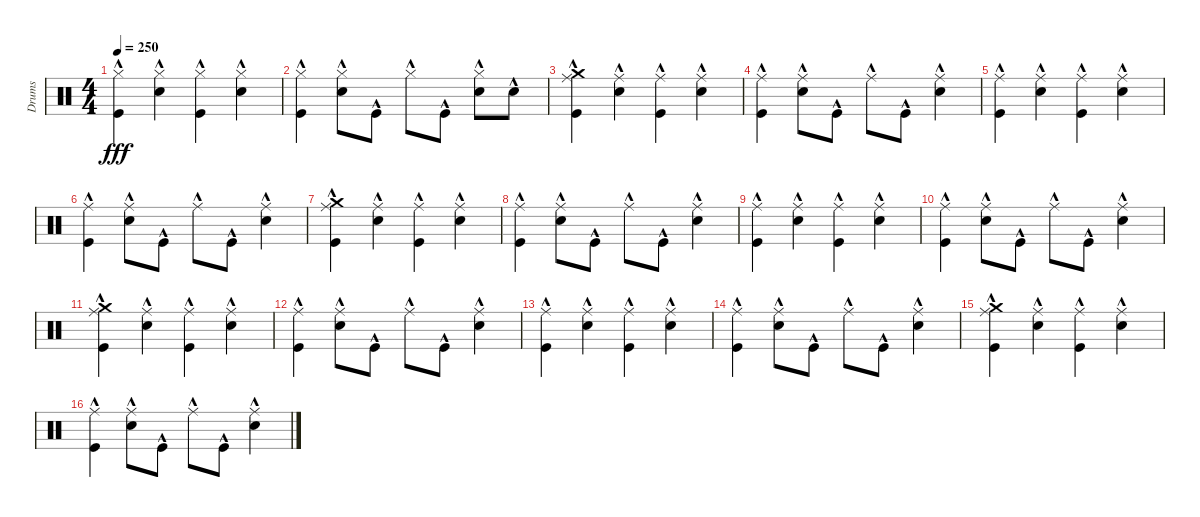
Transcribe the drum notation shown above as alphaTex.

\track ("Drums" "Drums") {instrument percussion}
\staff {score}
\articulation defaults
\ts (4 4)
\tempo 250
\clef neutral
\ks c
("Hi-Hat (closed)"{hac} "Kick (hit)"{hac}).4{dy fff} ("Hi-Hat (closed)"{hac} "Snare (hit) 2"{hac}).4 ("Hi-Hat (closed)"{hac} "Kick (hit)"{hac}).4 ("Hi-Hat (closed)"{hac} "Snare (hit) 2"{hac}).4 |
("Hi-Hat (closed)"{hac} "Kick (hit)"{hac}).4 ("Hi-Hat (closed)"{hac} "Snare (hit) 2"{hac}).8 "Kick (hit)"{hac}.8 "Hi-Hat (closed)"{hac}.8 "Kick (hit)"{hac}.8 ("Hi-Hat (closed)"{hac} "Snare (hit) 2"{hac}).8 "Snare (hit) 2"{hac}.8 |
("Crash medium (hit)"{hac} "Ride (middle)"{hac} "Kick (hit)"{hac}).4 ("Ride (middle)"{hac} "Snare (hit) 2"{hac}).4 ("Ride (middle)"{hac} "Kick (hit)"{hac}).4 ("Ride (middle)"{hac} "Snare (hit) 2"{hac}).4 |
("Ride (middle)"{hac} "Kick (hit)"{hac}).4 ("Ride (middle)"{hac} "Snare (hit) 2"{hac}).8 "Kick (hit)"{hac}.8 "Ride (middle)"{hac}.8 "Kick (hit)"{hac}.8 ("Ride (middle)"{hac} "Snare (hit) 2"{hac}).4 |
("Ride (middle)"{hac} "Kick (hit)"{hac}).4 ("Ride (middle)"{hac} "Snare (hit) 2"{hac}).4 ("Ride (middle)"{hac} "Kick (hit)"{hac}).4 ("Ride (middle)"{hac} "Snare (hit) 2"{hac}).4 |
("Ride (middle)"{hac} "Kick (hit)"{hac}).4 ("Ride (middle)"{hac} "Snare (hit) 2"{hac}).8 "Kick (hit)"{hac}.8 "Ride (middle)"{hac}.8 "Kick (hit)"{hac}.8 ("Ride (middle)"{hac} "Snare (hit) 2"{hac}).4 |
("Crash medium (hit)"{hac} "Ride (middle)"{hac} "Kick (hit)"{hac}).4 ("Ride (middle)"{hac} "Snare (hit) 2"{hac}).4 ("Ride (middle)"{hac} "Kick (hit)"{hac}).4 ("Ride (middle)"{hac} "Snare (hit) 2"{hac}).4 |
("Ride (middle)"{hac} "Kick (hit)"{hac}).4 ("Ride (middle)"{hac} "Snare (hit) 2"{hac}).8 "Kick (hit)"{hac}.8 "Ride (middle)"{hac}.8 "Kick (hit)"{hac}.8 ("Ride (middle)"{hac} "Snare (hit) 2"{hac}).4 |
("Ride (middle)"{hac} "Kick (hit)"{hac}).4 ("Ride (middle)"{hac} "Snare (hit) 2"{hac}).4 ("Ride (middle)"{hac} "Kick (hit)"{hac}).4 ("Ride (middle)"{hac} "Snare (hit) 2"{hac}).4 |
("Ride (middle)"{hac} "Kick (hit)"{hac}).4 ("Ride (middle)"{hac} "Snare (hit) 2"{hac}).8 "Kick (hit)"{hac}.8 "Ride (middle)"{hac}.8 "Kick (hit)"{hac}.8 ("Ride (middle)"{hac} "Snare (hit) 2"{hac}).4 |
("Crash medium (hit)"{hac} "Ride (middle)"{hac} "Kick (hit)"{hac}).4 ("Ride (middle)"{hac} "Snare (hit) 2"{hac}).4 ("Ride (middle)"{hac} "Kick (hit)"{hac}).4 ("Ride (middle)"{hac} "Snare (hit) 2"{hac}).4 |
("Ride (middle)"{hac} "Kick (hit)"{hac}).4 ("Ride (middle)"{hac} "Snare (hit) 2"{hac}).8 "Kick (hit)"{hac}.8 "Ride (middle)"{hac}.8 "Kick (hit)"{hac}.8 ("Ride (middle)"{hac} "Snare (hit) 2"{hac}).4 |
("Ride (middle)"{hac} "Kick (hit)"{hac}).4 ("Ride (middle)"{hac} "Snare (hit) 2"{hac}).4 ("Ride (middle)"{hac} "Kick (hit)"{hac}).4 ("Ride (middle)"{hac} "Snare (hit) 2"{hac}).4 |
("Ride (middle)"{hac} "Kick (hit)"{hac}).4 ("Ride (middle)"{hac} "Snare (hit) 2"{hac}).8 "Kick (hit)"{hac}.8 "Ride (middle)"{hac}.8 "Kick (hit)"{hac}.8 ("Ride (middle)"{hac} "Snare (hit) 2"{hac}).4 |
("Crash medium (hit)"{hac} "Ride (middle)"{hac} "Kick (hit)"{hac}).4 ("Ride (middle)"{hac} "Snare (hit) 2"{hac}).4 ("Ride (middle)"{hac} "Kick (hit)"{hac}).4 ("Ride (middle)"{hac} "Snare (hit) 2"{hac}).4 |
("Ride (middle)"{hac} "Kick (hit)"{hac}).4 ("Ride (middle)"{hac} "Snare (hit) 2"{hac}).8 "Kick (hit)"{hac}.8 "Ride (middle)"{hac}.8 "Kick (hit)"{hac}.8 ("Ride (middle)"{hac} "Snare (hit) 2"{hac}).4
